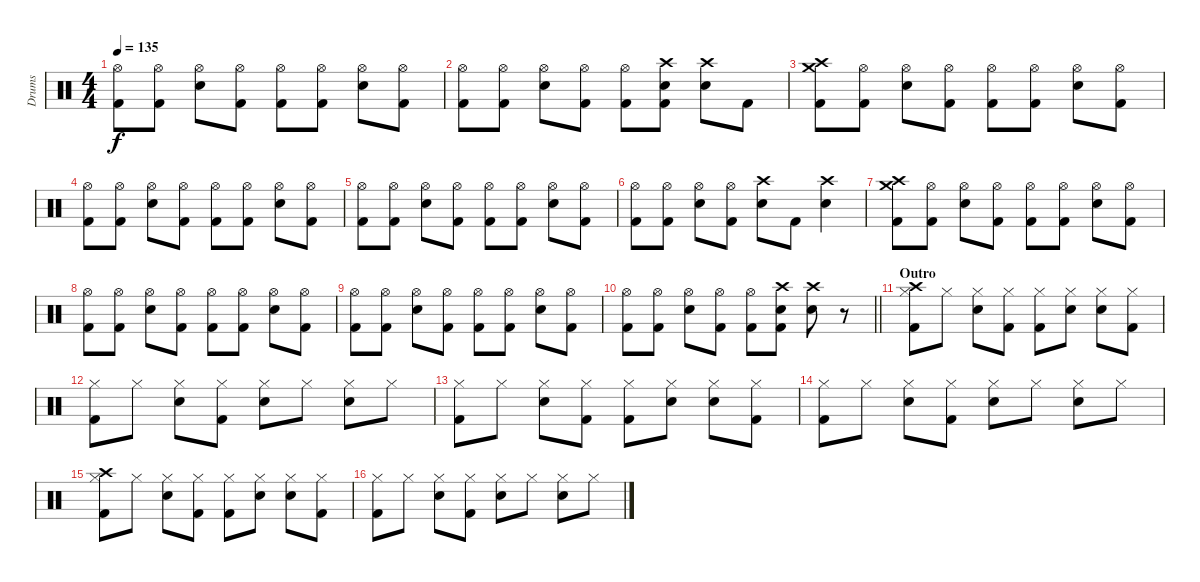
\track ("Drums" "Drums") {instrument percussion}
\staff {score}
\articulation defaults
\ts (4 4)
\tempo 135
\clef neutral
\ks c
("Hi-Hat (open)" "Kick (hit) 2").8{dy f} ("Hi-Hat (open)" "Kick (hit) 2").8 ("Hi-Hat (open)" "Electric Snare (hit)").8 ("Hi-Hat (open)" "Kick (hit) 2").8 ("Hi-Hat (open)" "Kick (hit) 2").8 ("Hi-Hat (open)" "Kick (hit) 2").8 ("Hi-Hat (open)" "Electric Snare (hit)").8 ("Hi-Hat (open)" "Kick (hit) 2").8 |
("Hi-Hat (open)" "Kick (hit) 2").8 ("Hi-Hat (open)" "Kick (hit) 2").8 ("Hi-Hat (open)" "Electric Snare (hit)").8 ("Hi-Hat (open)" "Kick (hit) 2").8 ("Hi-Hat (open)" "Kick (hit) 2").8 ("Crash high (hit)" "Electric Snare (hit)" "Kick (hit) 2").8 ("Crash high (hit)" "Electric Snare (hit)").8 "Kick (hit) 2".8 |
("Crash high (hit)" "Crash medium (hit)" "Kick (hit) 2").8 ("Hi-Hat (open)" "Kick (hit) 2").8 ("Hi-Hat (open)" "Electric Snare (hit)").8 ("Hi-Hat (open)" "Kick (hit) 2").8 ("Hi-Hat (open)" "Kick (hit) 2").8 ("Hi-Hat (open)" "Kick (hit) 2").8 ("Hi-Hat (open)" "Electric Snare (hit)").8 ("Hi-Hat (open)" "Kick (hit) 2").8 |
("Hi-Hat (open)" "Kick (hit) 2").8 ("Hi-Hat (open)" "Kick (hit) 2").8 ("Hi-Hat (open)" "Electric Snare (hit)").8 ("Hi-Hat (open)" "Kick (hit) 2").8 ("Hi-Hat (open)" "Kick (hit) 2").8 ("Hi-Hat (open)" "Kick (hit) 2").8 ("Hi-Hat (open)" "Electric Snare (hit)").8 ("Hi-Hat (open)" "Kick (hit) 2").8 |
("Hi-Hat (open)" "Kick (hit) 2").8 ("Hi-Hat (open)" "Kick (hit) 2").8 ("Hi-Hat (open)" "Electric Snare (hit)").8 ("Hi-Hat (open)" "Kick (hit) 2").8 ("Hi-Hat (open)" "Kick (hit) 2").8 ("Hi-Hat (open)" "Kick (hit) 2").8 ("Hi-Hat (open)" "Electric Snare (hit)").8 ("Hi-Hat (open)" "Kick (hit) 2").8 |
("Hi-Hat (open)" "Kick (hit) 2").8 ("Hi-Hat (open)" "Kick (hit) 2").8 ("Hi-Hat (open)" "Electric Snare (hit)").8 ("Hi-Hat (open)" "Kick (hit) 2").8 ("Crash high (hit)" "Electric Snare (hit)").8 "Kick (hit) 2".8 ("Crash high (hit)" "Electric Snare (hit)").4 |
("Crash high (hit)" "Crash medium (hit)" "Kick (hit) 2").8 ("Hi-Hat (open)" "Kick (hit) 2").8 ("Hi-Hat (open)" "Electric Snare (hit)").8 ("Hi-Hat (open)" "Kick (hit) 2").8 ("Hi-Hat (open)" "Kick (hit) 2").8 ("Hi-Hat (open)" "Kick (hit) 2").8 ("Hi-Hat (open)" "Electric Snare (hit)").8 ("Hi-Hat (open)" "Kick (hit) 2").8 |
("Hi-Hat (open)" "Kick (hit) 2").8 ("Hi-Hat (open)" "Kick (hit) 2").8 ("Hi-Hat (open)" "Electric Snare (hit)").8 ("Hi-Hat (open)" "Kick (hit) 2").8 ("Hi-Hat (open)" "Kick (hit) 2").8 ("Hi-Hat (open)" "Kick (hit) 2").8 ("Hi-Hat (open)" "Electric Snare (hit)").8 ("Hi-Hat (open)" "Kick (hit) 2").8 |
("Hi-Hat (open)" "Kick (hit) 2").8 ("Hi-Hat (open)" "Kick (hit) 2").8 ("Hi-Hat (open)" "Electric Snare (hit)").8 ("Hi-Hat (open)" "Kick (hit) 2").8 ("Hi-Hat (open)" "Kick (hit) 2").8 ("Hi-Hat (open)" "Kick (hit) 2").8 ("Hi-Hat (open)" "Electric Snare (hit)").8 ("Hi-Hat (open)" "Kick (hit) 2").8 |
\barLineRight lightlight
("Hi-Hat (open)" "Kick (hit) 2").8 ("Hi-Hat (open)" "Kick (hit) 2").8 ("Hi-Hat (open)" "Electric Snare (hit)").8 ("Hi-Hat (open)" "Kick (hit) 2").8 ("Hi-Hat (open)" "Kick (hit) 2").8 ("Crash high (hit)" "Electric Snare (hit)" "Kick (hit) 2").8 ("Crash high (hit)" "Electric Snare (hit)").8 r.8 |
\section ("" "Outro")
("Crash high (hit)" "Hi-Hat (closed)" "Kick (hit) 2").8 "Hi-Hat (closed)".8 ("Hi-Hat (closed)" "Electric Snare (hit)").8 ("Hi-Hat (closed)" "Kick (hit) 2").8 ("Hi-Hat (closed)" "Kick (hit) 2").8 ("Hi-Hat (closed)" "Electric Snare (hit)").8 ("Hi-Hat (closed)" "Electric Snare (hit)").8 ("Hi-Hat (closed)" "Kick (hit) 2").8 |
("Hi-Hat (closed)" "Kick (hit) 2").8{volume 13} "Hi-Hat (closed)".8 ("Hi-Hat (closed)" "Electric Snare (hit)").8 ("Hi-Hat (closed)" "Kick (hit) 2").8 ("Hi-Hat (closed)" "Electric Snare (hit)").8 "Hi-Hat (closed)".8 ("Hi-Hat (closed)" "Electric Snare (hit)").8 "Hi-Hat (closed)".8 |
("Hi-Hat (closed)" "Kick (hit) 2").8 "Hi-Hat (closed)".8 ("Hi-Hat (closed)" "Electric Snare (hit)").8 ("Hi-Hat (closed)" "Kick (hit) 2").8 ("Hi-Hat (closed)" "Kick (hit) 2").8 ("Hi-Hat (closed)" "Electric Snare (hit)").8 ("Hi-Hat (closed)" "Electric Snare (hit)").8 ("Hi-Hat (closed)" "Kick (hit) 2").8 |
("Hi-Hat (closed)" "Kick (hit) 2").8{volume 13} "Hi-Hat (closed)".8 ("Hi-Hat (closed)" "Electric Snare (hit)").8 ("Hi-Hat (closed)" "Kick (hit) 2").8 ("Hi-Hat (closed)" "Electric Snare (hit)").8 "Hi-Hat (closed)".8 ("Hi-Hat (closed)" "Electric Snare (hit)").8 "Hi-Hat (closed)".8 |
("Crash high (hit)" "Hi-Hat (closed)" "Kick (hit) 2").8 "Hi-Hat (closed)".8 ("Hi-Hat (closed)" "Electric Snare (hit)").8 ("Hi-Hat (closed)" "Kick (hit) 2").8 ("Hi-Hat (closed)" "Kick (hit) 2").8 ("Hi-Hat (closed)" "Electric Snare (hit)").8 ("Hi-Hat (closed)" "Electric Snare (hit)").8 ("Hi-Hat (closed)" "Kick (hit) 2").8 |
("Hi-Hat (closed)" "Kick (hit) 2").8{volume 13} "Hi-Hat (closed)".8 ("Hi-Hat (closed)" "Electric Snare (hit)").8 ("Hi-Hat (closed)" "Kick (hit) 2").8 ("Hi-Hat (closed)" "Electric Snare (hit)").8 "Hi-Hat (closed)".8 ("Hi-Hat (closed)" "Electric Snare (hit)").8 "Hi-Hat (closed)".8
